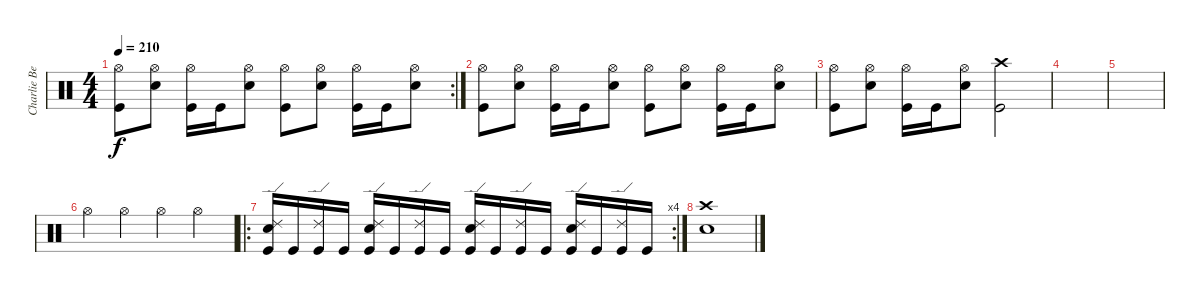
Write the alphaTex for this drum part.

\track ("Charlie Benante" "Charlie Be") {instrument percussion}
\staff {score}
\articulation defaults
\rc 2
\ts (4 4)
\tempo 210
\clef neutral
\ks c
("Hi-Hat (open)" "Kick (hit)").8{dy f} ("Hi-Hat (open)" "Snare (hit) 2").8 ("Hi-Hat (open)" "Kick (hit)").16 "Kick (hit)".16 ("Hi-Hat (open)" "Snare (hit) 2").8 ("Hi-Hat (open)" "Kick (hit)").8 ("Hi-Hat (open)" "Snare (hit) 2").8 ("Hi-Hat (open)" "Kick (hit)").16 "Kick (hit)".16 ("Hi-Hat (open)" "Snare (hit) 2").8 |
("Hi-Hat (open)" "Kick (hit)").8 ("Hi-Hat (open)" "Snare (hit) 2").8 ("Hi-Hat (open)" "Kick (hit)").16 "Kick (hit)".16 ("Hi-Hat (open)" "Snare (hit) 2").8 ("Hi-Hat (open)" "Kick (hit)").8 ("Hi-Hat (open)" "Snare (hit) 2").8 ("Hi-Hat (open)" "Kick (hit)").16 "Kick (hit)".16 ("Hi-Hat (open)" "Snare (hit) 2").8 |
("Hi-Hat (open)" "Kick (hit)").8 ("Hi-Hat (open)" "Snare (hit) 2").8 ("Hi-Hat (open)" "Kick (hit)").16 "Kick (hit)".16 ("Hi-Hat (open)" "Snare (hit) 2").8 ("Crash high (hit)" "Kick (hit)").2 |
|
|
"Hi-Hat (open)".4 "Hi-Hat (open)".4 "Hi-Hat (open)".4 "Hi-Hat (open)".4 |
\ro
\rc 4
("Ride (edge) 2" "Snare (hit) 2" "Kick (hit)").16 "Kick (hit)".16 ("Ride (edge) 2" "Kick (hit)").16 "Kick (hit)".16 ("Ride (edge) 2" "Snare (hit) 2" "Kick (hit)").16 "Kick (hit)".16 ("Ride (edge) 2" "Kick (hit)").16 "Kick (hit)".16 ("Ride (edge) 2" "Snare (hit) 2" "Kick (hit)").16 "Kick (hit)".16 ("Ride (edge) 2" "Kick (hit)").16 "Kick (hit)".16 ("Ride (edge) 2" "Snare (hit) 2" "Kick (hit)").16 "Kick (hit)".16 ("Ride (edge) 2" "Kick (hit)").16 "Kick (hit)".16 |
("Crash high (hit)" "Snare (hit) 2").1
